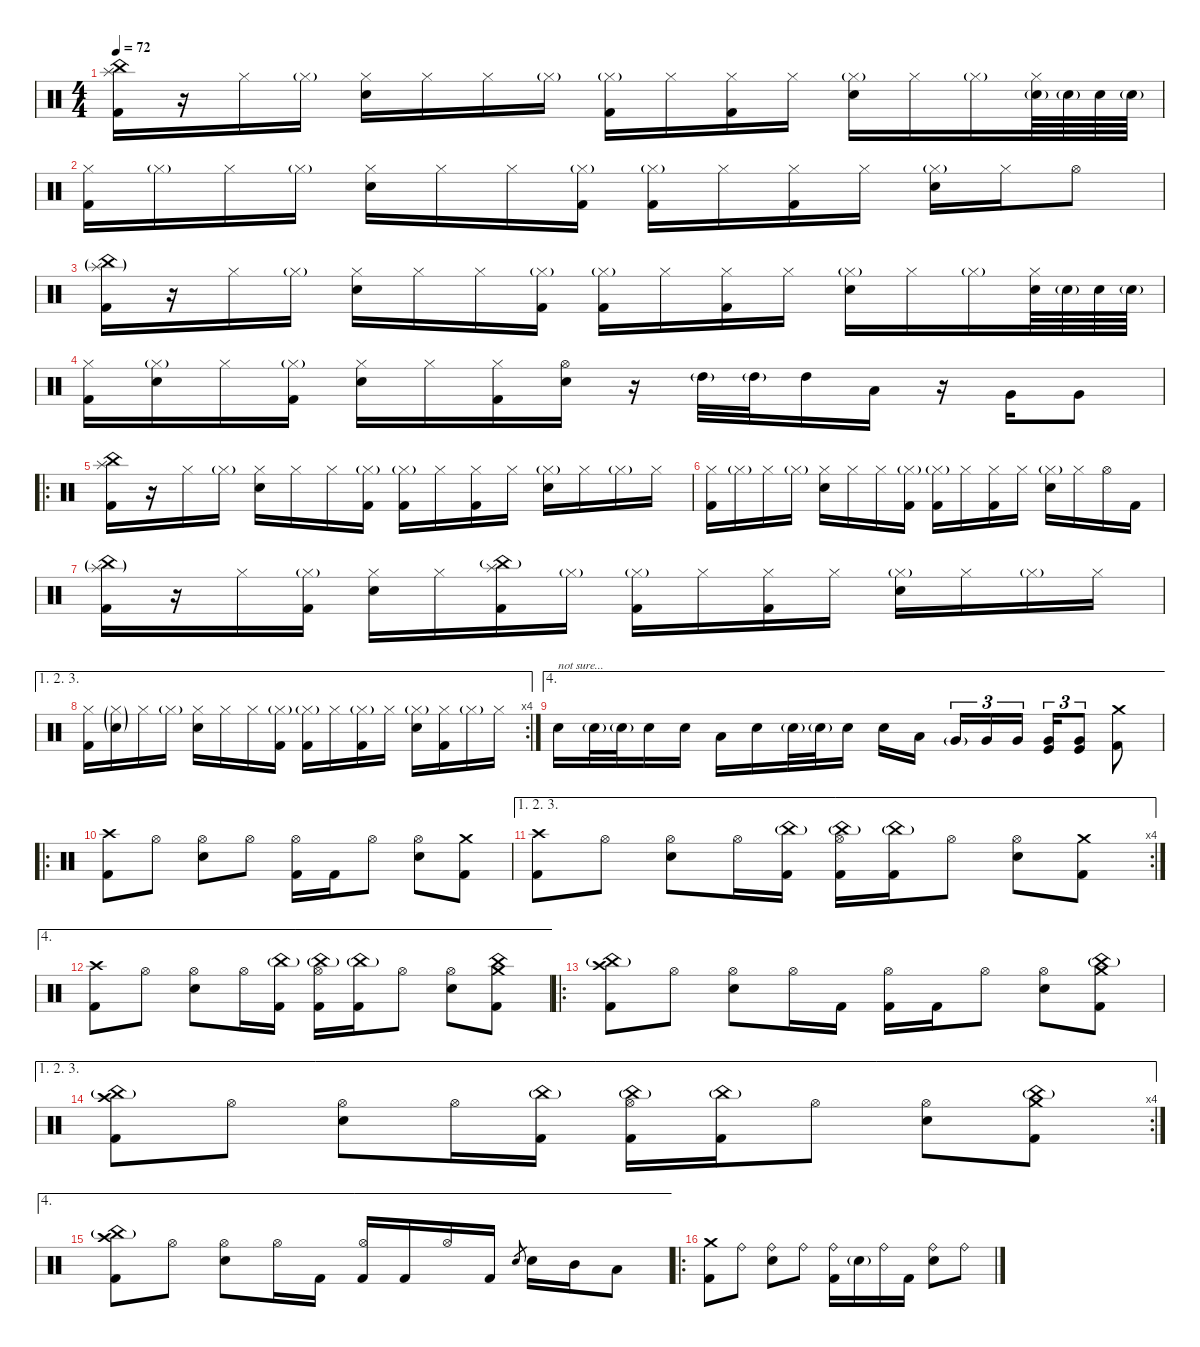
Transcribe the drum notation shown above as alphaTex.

\defaultSystemsLayout 4
\hideDynamics
\bracketExtendMode nobrackets
\singleTrackTrackNamePolicy hidden
\multiTrackTrackNamePolicy hidden
\firstSystemTrackNameMode fullname
\firstSystemTrackNameOrientation horizontal
\otherSystemsTrackNameOrientation horizontal
\track ("Drums" "drm.") {instrument percussion}
\staff {score}
\articulation defaults
\ts (4 4)
\tempo 72
\clef neutral
\ks c
("Splash (hit)" "China (hit)" "Kick (hit) 2").16{dy f beam Down} r.16{beam Down} "Hi-Hat (closed)".16{beam Down} "Hi-Hat (closed)"{g}.16{dy mf beam Down} ("Hi-Hat (closed)" "Snare (hit) 2").16{dy f beam Down} "Hi-Hat (closed)".16{beam Down} "Hi-Hat (closed)".16{beam Down} "Hi-Hat (closed)"{g}.16{dy mf beam Down} ("Hi-Hat (closed)"{g} "Kick (hit) 2").16{dy f beam Down} "Hi-Hat (closed)".16{beam Down} ("Hi-Hat (closed)" "Kick (hit) 2").16{beam Down} "Hi-Hat (closed)".16{beam Down} ("Hi-Hat (closed)"{g} "Snare (hit) 2").16{beam Down} "Hi-Hat (closed)".16{beam Down} "Hi-Hat (closed)"{g}.16{dy mf beam Down} ("Hi-Hat (closed)" "Snare (hit) 2"{g}).64{dy f beam Down} "Snare (hit) 2"{g}.64{dy mp beam Down} "Snare (hit) 2".64{beam Down} "Snare (hit) 2"{g}.64{dy mf beam Down} |
("Hi-Hat (closed)" "Kick (hit) 2").16{dy f beam Down} "Hi-Hat (closed)"{g}.16{dy mf beam Down} "Hi-Hat (closed)".16{dy f beam Down} "Hi-Hat (closed)"{g}.16{dy mf beam Down} ("Hi-Hat (closed)" "Snare (hit) 2").16{dy f beam Down} "Hi-Hat (closed)".16{beam Down} "Hi-Hat (closed)".16{beam Down} ("Hi-Hat (closed)"{g} "Kick (hit) 2").16{beam Down} ("Hi-Hat (closed)"{g} "Kick (hit) 2").16{beam Down} "Hi-Hat (closed)".16{beam Down} ("Hi-Hat (closed)" "Kick (hit) 2").16{beam Down} "Hi-Hat (closed)".16{beam Down} ("Hi-Hat (closed)"{g} "Snare (hit) 2").16{beam Down} "Hi-Hat (closed)".16{beam Down} "Hi-Hat (open)".8{beam Down} |
("Splash (hit)"{g} "China (hit)"{g} "Kick (hit) 2").16{beam Down} r.16{beam Down} "Hi-Hat (closed)".16{beam Down} "Hi-Hat (closed)"{g}.16{dy mf beam Down} ("Hi-Hat (closed)" "Snare (hit) 2").16{dy f beam Down} "Hi-Hat (closed)".16{beam Down} "Hi-Hat (closed)".16{beam Down} ("Hi-Hat (closed)"{g} "Kick (hit) 2").16{beam Down} ("Hi-Hat (closed)"{g} "Kick (hit) 2").16{beam Down} "Hi-Hat (closed)".16{beam Down} ("Hi-Hat (closed)" "Kick (hit) 2").16{beam Down} "Hi-Hat (closed)".16{beam Down} ("Hi-Hat (closed)"{g} "Snare (hit) 2").16{beam Down} "Hi-Hat (closed)".16{beam Down} "Hi-Hat (closed)"{g}.16{dy mf beam Down} ("Hi-Hat (closed)" "Snare (hit) 2").64{dy f beam Down} "Snare (hit) 2"{g}.64{dy mf beam Down} "Snare (hit) 2".64{dy f beam Down} "Snare (hit) 2"{g}.64{dy mf beam Down} |
("Hi-Hat (closed)" "Kick (hit) 2").16{dy f beam Down} ("Hi-Hat (closed)"{g} "Snare (hit) 2").16{beam Down} "Hi-Hat (closed)".16{beam Down} ("Hi-Hat (closed)"{g} "Kick (hit) 2").16{beam Down} ("Hi-Hat (closed)" "Snare (hit) 2").16{beam Down} "Hi-Hat (closed)".16{beam Down} ("Hi-Hat (closed)" "Kick (hit) 2").16{beam Down} ("Hi-Hat (open)" "Snare (hit) 2").16{beam Down} r.16{beam Down} "High Tom (hit)"{g}.32{beam Down} "High Tom (hit)"{g}.32{beam Down} "High Tom (hit)".16{dy fff beam Down} "Low Tom (hit)".16{beam Down} r.16{beam Down} "Very Low Tom (hit)".16{beam Up} "Very Low Tom (hit)".8{beam Up} |
\ro
("Splash (hit)" "China (hit)" "Kick (hit) 2").16{dy f beam Down} r.16{beam Down} "Hi-Hat (closed)".16{beam Down} "Hi-Hat (closed)"{g}.16{dy mf beam Down} ("Hi-Hat (closed)" "Snare (hit) 2").16{dy f beam Down} "Hi-Hat (closed)".16{beam Down} "Hi-Hat (closed)".16{beam Down} ("Hi-Hat (closed)"{g} "Kick (hit) 2").16{beam Down} ("Hi-Hat (closed)"{g} "Kick (hit) 2").16{beam Down} "Hi-Hat (closed)".16{beam Down} ("Hi-Hat (closed)" "Kick (hit) 2").16{beam Down} "Hi-Hat (closed)".16{beam Down} ("Hi-Hat (closed)"{g} "Snare (hit) 2").16{beam Down} "Hi-Hat (closed)".16{beam Down} "Hi-Hat (closed)"{g}.16{dy mf beam Down} "Hi-Hat (closed)".16{dy f beam Down} |
("Hi-Hat (closed)" "Kick (hit) 2").16{beam Down} "Hi-Hat (closed)"{g}.16{dy mf beam Down} "Hi-Hat (closed)".16{dy f beam Down} "Hi-Hat (closed)"{g}.16{dy mf beam Down} ("Hi-Hat (closed)" "Snare (hit) 2").16{dy f beam Down} "Hi-Hat (closed)".16{beam Down} "Hi-Hat (closed)".16{beam Down} ("Hi-Hat (closed)"{g} "Kick (hit) 2").16{beam Down} ("Hi-Hat (closed)"{g} "Kick (hit) 2").16{beam Down} "Hi-Hat (closed)".16{beam Down} ("Hi-Hat (closed)" "Kick (hit) 2").16{beam Down} "Hi-Hat (closed)".16{beam Down} ("Hi-Hat (closed)"{g} "Snare (hit) 2").16{beam Down} "Hi-Hat (closed)".16{beam Down} "Hi-Hat (open)".16{dy mf beam Down} "Kick (hit) 2".16{beam Down} |
("Splash (hit)"{g} "China (hit)"{g} "Kick (hit) 2").16{beam Down} r.16{beam Down} "Hi-Hat (closed)".16{dy f beam Down} ("Hi-Hat (closed)"{g} "Kick (hit) 2").16{beam Down} ("Hi-Hat (closed)" "Snare (hit) 2").16{beam Down} "Hi-Hat (closed)".16{beam Down} ("China (hit)"{g} "Splash (hit)" "Kick (hit) 2").16{beam Down} "Hi-Hat (closed)"{g}.16{dy mf beam Down} ("Hi-Hat (closed)"{g} "Kick (hit) 2").16{dy f beam Down} "Hi-Hat (closed)".16{beam Down} ("Hi-Hat (closed)" "Kick (hit) 2").16{beam Down} "Hi-Hat (closed)".16{beam Down} ("Hi-Hat (closed)"{g} "Snare (hit) 2").16{beam Down} "Hi-Hat (closed)".16{beam Down} "Hi-Hat (closed)"{g}.16{dy mf beam Down} "Hi-Hat (closed)".16{dy f beam Down} |
\ae (1 2 3)
\rc 4
("Hi-Hat (closed)" "Kick (hit) 2").16{beam Down} ("Hi-Hat (closed)"{g} "Snare (hit) 2"{g}).16{dy mf beam Down} "Hi-Hat (closed)".16{dy f beam Down} "Hi-Hat (closed)"{g}.16{dy mf beam Down} ("Hi-Hat (closed)" "Snare (hit) 2").16{dy f beam Down} "Hi-Hat (closed)".16{beam Down} "Hi-Hat (closed)".16{beam Down} ("Hi-Hat (closed)"{g} "Kick (hit) 2").16{beam Down} ("Hi-Hat (closed)"{g} "Kick (hit) 2").16{beam Down} "Hi-Hat (closed)".16{beam Down} ("Hi-Hat (closed)"{g} "Kick (hit) 2").16{beam Down} "Hi-Hat (closed)".16{beam Down} ("Hi-Hat (closed)"{g} "Snare (hit) 2").16{beam Down} ("Hi-Hat (closed)" "Kick (hit) 2").16{beam Down} "Hi-Hat (closed)"{g}.16{dy mf beam Down} "Hi-Hat (closed)".16{dy f beam Down} |
\ae 4 "Snare (hit) 2".16{txt "not sure..." beam Down} "Snare (hit) 2"{g}.32{dy mf beam Down} "Snare (hit) 2"{g}.32{beam Down} "Snare (hit) 2".16{dy f beam Down} "Snare (hit) 2".16{beam Down} "Low Tom (hit)".16{beam Down} "Snare (hit) 2".16{beam Down} "Snare (hit) 2"{g}.32{dy mf beam Down} "Snare (hit) 2"{g}.32{beam Down} "Snare (hit) 2".16{dy f beam Down} "Snare (hit) 2".16{beam Down} "Low Tom (hit)".16{beam Down} "Very Low Tom (hit)"{g}.16{tu (3 2) dy mf beam Up} "Very Low Tom (hit)".16{tu (3 2) dy f beam Up} "Very Low Tom (hit)".16{tu (3 2) beam Up}
("Very Low Tom (hit)" "Kick (hit)").16{tu (3 2) beam Up} ("Very Low Tom (hit)" "Kick (hit)").8{tu (3 2) beam Up} ("Crash medium (hit)" "Kick (hit) 2").8{beam Down} |
\ro
("Crash high (hit)" "Kick (hit) 2").8{beam Down} "Hi-Hat (open)".8{beam Down} ("Hi-Hat (open)" "Snare (hit) 2").8{beam Down} "Hi-Hat (open)".8{beam Down} ("Hi-Hat (open)" "Kick (hit) 2").16{beam Down} "Kick (hit) 2".16{beam Down} "Hi-Hat (open)".8{beam Down} ("Hi-Hat (open)" "Snare (hit) 2").8{beam Down} ("Crash medium (hit)" "Kick (hit) 2").8{beam Down} |
\ae (1 2 3)
\rc 4
("Crash high (hit)" "Kick (hit) 2").8{beam Down} "Hi-Hat (open)".8{beam Down} ("Hi-Hat (open)" "Snare (hit) 2").8{beam Down} "Hi-Hat (open)".16{beam Down} ("China (hit)"{g} "Kick (hit) 2").16{beam Down} ("China (hit)"{g} "Hi-Hat (open)" "Kick (hit) 2").16{beam Down} ("China (hit)"{g} "Kick (hit) 2").16{beam Down} "Hi-Hat (open)".8{beam Down} ("Hi-Hat (open)" "Snare (hit) 2").8{beam Down} ("Crash medium (hit)" "Kick (hit) 2").8{beam Down} |
\ae 4
("Crash high (hit)" "Kick (hit) 2").8{beam Down} "Hi-Hat (open)".8{beam Down} ("Hi-Hat (open)" "Snare (hit) 2").8{beam Down} "Hi-Hat (open)".16{beam Down} ("China (hit)"{g} "Kick (hit) 2").16{beam Down} ("China (hit)"{g} "Hi-Hat (open)" "Kick (hit) 2").16{beam Down} ("China (hit)"{g} "Kick (hit) 2").16{beam Down} "Hi-Hat (open)".8{beam Down} ("Hi-Hat (open)" "Snare (hit) 2").8{beam Down} ("Crash medium (hit)" "China (hit)" "Kick (hit) 2").8{beam Down} |
\ro
("Crash high (hit)" "China (hit)"{g} "Kick (hit) 2").8{beam Down} "Hi-Hat (open)".8{beam Down} ("Hi-Hat (open)" "Snare (hit) 2").8{beam Down} "Hi-Hat (open)".16{beam Down} "Kick (hit) 2".16{beam Down} ("Hi-Hat (open)" "Kick (hit) 2").16{beam Down} "Kick (hit) 2".16{beam Down} "Hi-Hat (open)".8{beam Down} ("Hi-Hat (open)" "Snare (hit) 2").8{beam Down} ("Crash medium (hit)" "China (hit)"{g} "Kick (hit) 2").8{beam Down} |
\ae (1 2 3)
\rc 4
("Crash high (hit)" "China (hit)"{g} "Kick (hit) 2").8{beam Down} "Hi-Hat (open)".8{beam Down} ("Hi-Hat (open)" "Snare (hit) 2").8{beam Down} "Hi-Hat (open)".16{beam Down} ("China (hit)"{g} "Kick (hit) 2").16{beam Down} ("China (hit)"{g} "Hi-Hat (open)" "Kick (hit) 2").16{beam Down} ("China (hit)"{g} "Kick (hit) 2").16{beam Down} "Hi-Hat (open)".8{beam Down} ("Hi-Hat (open)" "Snare (hit) 2").8{beam Down} ("Crash medium (hit)" "China (hit)"{g} "Kick (hit) 2").8{beam Down} |
\ae 4
("Crash high (hit)" "China (hit)"{g} "Kick (hit) 2").8{beam Down} "Hi-Hat (open)".8{beam Down} ("Hi-Hat (open)" "Snare (hit) 2").8{beam Down} "Hi-Hat (open)".16{beam Down} "Kick (hit) 2".16{beam Down} ("Hi-Hat (open)" "Kick (hit) 2").16{beam Up} "Kick (hit) 2".16{beam Up} "Hi-Hat (open)".16{beam Up} "Kick (hit) 2".16{beam Up} "Electric Snare (hit)".8{gr dy mf beam Up} "Snare (hit) 2".16{dy f beam Down} "Mid Tom (hit)".16{beam Down} "Low Tom (hit)".8{beam Down} |
\ro
("Crash medium (hit)" "Kick (hit) 2").8{beam Down} "Ride (bell)".8{beam Down} ("Ride (bell)" "Snare (hit) 2").8{beam Down} "Ride (bell)".8{beam Down} ("Ride (bell)" "Kick (hit) 2").16{beam Down} "Snare (hit) 2"{g}.16{beam Down} "Ride (bell)".16{beam Down} "Kick (hit) 2".16{beam Down} ("Ride (bell)" "Snare (hit) 2").8{beam Down} "Ride (bell)".8{beam Down}
